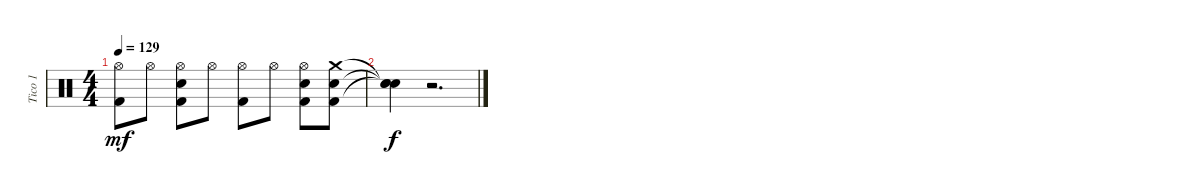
\track ("Tico 1" "Tico 1") {instrument percussion}
\staff {score}
\articulation defaults
\ts (4 4)
\tempo 129
\clef neutral
\ks c
("Hi-Hat (open)" "Kick (hit) 2").8{dy mf} "Hi-Hat (open)".8 ("Hi-Hat (open)" "Snare (hit) 2" "Kick (hit) 2").8 "Hi-Hat (open)".8 ("Hi-Hat (open)" "Kick (hit) 2").8 "Hi-Hat (open)".8 ("Hi-Hat (open)" "Snare (hit) 2" "Kick (hit) 2").8 ("Crash medium (hit)" "Snare (hit) 2" "Kick (hit) 2").8 |
("Snare (hit)"{t} "Snare (hit)"{t} "Snare (hit)"{t}).4{dy f} r.2{d}
